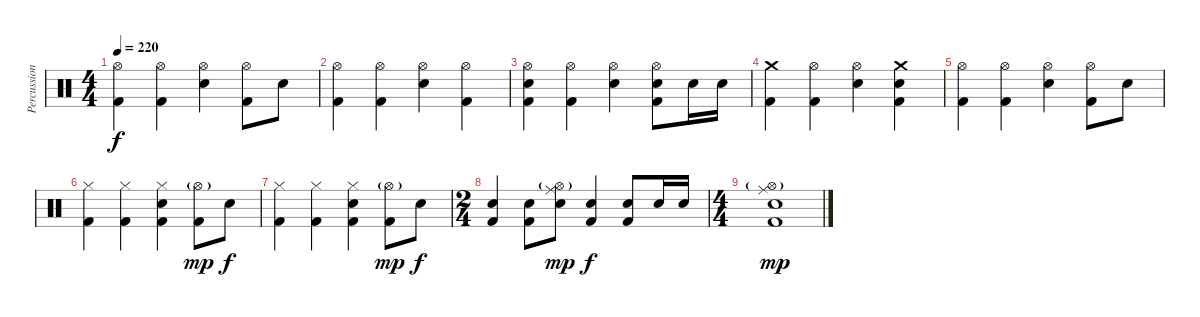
\track ("Percussions" "Percussion") {instrument percussion}
\staff {score}
\articulation defaults
\ts (4 4)
\tempo 220
\clef neutral
\ks c
("Hi-Hat (open)" "Kick (hit) 2").4{dy f} ("Hi-Hat (open)" "Kick (hit) 2").4 ("Snare (hit) 2" "Hi-Hat (open)").4 ("Hi-Hat (open)" "Kick (hit) 2").8 "Snare (hit) 2".8 |
("Hi-Hat (open)" "Kick (hit) 2").4 ("Hi-Hat (open)" "Kick (hit) 2").4 ("Snare (hit) 2" "Hi-Hat (open)").4 ("Hi-Hat (open)" "Kick (hit) 2").4 |
("Snare (hit) 2" "Hi-Hat (open)" "Kick (hit) 2").4 ("Hi-Hat (open)" "Kick (hit) 2").4 ("Snare (hit) 2" "Hi-Hat (open)").4 ("Snare (hit) 2" "Hi-Hat (open)" "Kick (hit) 2").8 "Snare (hit) 2".16 "Snare (hit) 2".16 |
("Crash medium (hit)" "Kick (hit) 2").4 ("Hi-Hat (open)" "Kick (hit) 2").4 ("Snare (hit) 2" "Hi-Hat (open)").4 ("Snare (hit) 2" "Crash medium (hit)" "Kick (hit) 2").4 |
("Hi-Hat (open)" "Kick (hit) 2").4 ("Hi-Hat (open)" "Kick (hit) 2").4 ("Snare (hit) 2" "Hi-Hat (open)").4 ("Hi-Hat (open)" "Kick (hit) 2").8 "Snare (hit) 2".8 |
("Hi-Hat (closed)" "Kick (hit) 2").4 ("Hi-Hat (closed)" "Kick (hit) 2").4 ("Snare (hit) 2" "Hi-Hat (closed)" "Kick (hit) 2").4 ("Hi-Hat (open)"{g} "Kick (hit) 2").8{dy mp} "Snare (hit) 2".8{dy f} |
("Hi-Hat (closed)" "Kick (hit) 2").4 ("Hi-Hat (closed)" "Kick (hit) 2").4 ("Snare (hit) 2" "Hi-Hat (closed)" "Kick (hit) 2").4 ("Hi-Hat (open)"{g} "Kick (hit) 2").8{dy mp} "Snare (hit) 2".8{dy f} |
\ts (2 4)
("Snare (hit) 2" "Kick (hit) 2").4 ("Snare (hit) 2" "Kick (hit) 2").8 ("Snare (hit) 2" "Hi-Hat (open)"{g} "Ride (middle)").8{dy mp} ("Snare (hit) 2" "Kick (hit) 2").4{dy f} ("Snare (hit) 2" "Kick (hit) 2").8 "Snare (hit) 2".16 "Snare (hit) 2".16 |
\ts (4 4)
("Snare (hit) 2" "Hi-Hat (open)"{g} "Ride (middle)" "Kick (hit) 2").1{dy mp}
